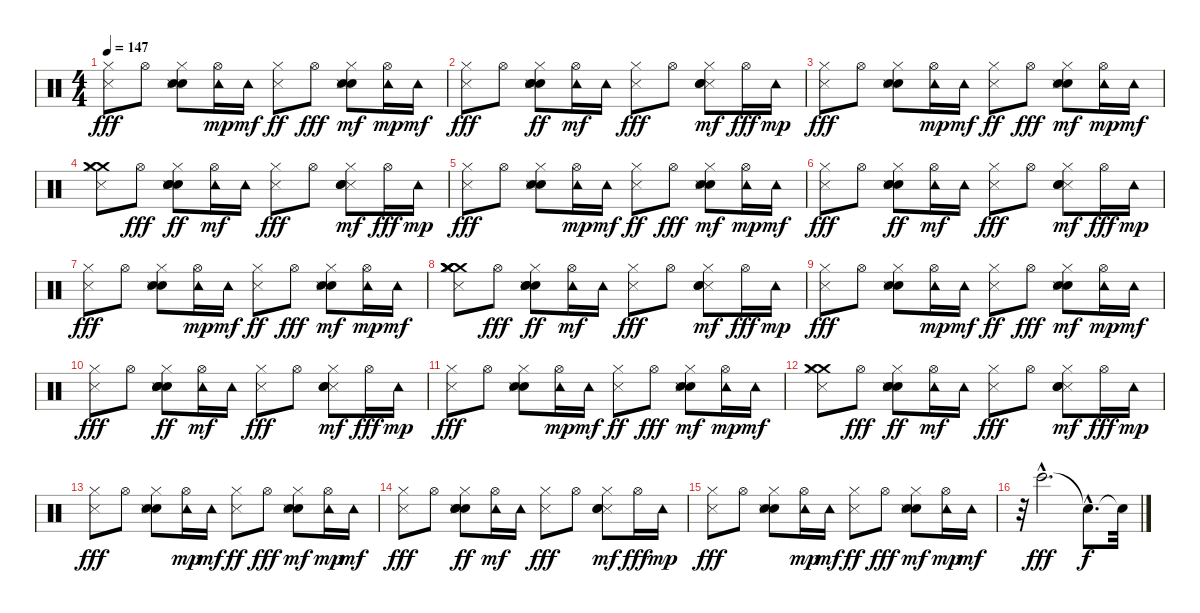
\track "" {instrument percussion}
\staff {score}
\articulation defaults
\ts (4 4)
\tempo 147
\clef neutral
\ks c
("Metronome (hit)" "Hi-Hat (closed)").8{dy fff} "Hi-Hat (open)".8 ("Hand Clap (hit)" "Metronome (hit)" "Hi-Hat (closed)" "Snare (hit) 2").8 ("Hi-Hat (open)" "Tambourine (hit)").16{dy mp} "Tambourine (hit)".16{dy mf} ("Metronome (hit)" "Hi-Hat (closed)").8{dy ff} "Hi-Hat (open)".8{dy fff} ("Hand Clap (hit)" "Metronome (hit)" "Hi-Hat (closed)" "Snare (hit) 2").8{dy mf} ("Hi-Hat (open)" "Tambourine (hit)").16{dy mp} "Tambourine (hit)".16{dy mf} |
("Hi-Hat (closed)" "Metronome (hit)").8{dy fff} "Hi-Hat (open)".8 ("Hand Clap (hit)" "Metronome (hit)" "Hi-Hat (closed)" "Snare (hit) 2" "Snare (hit) 2").8{dy ff} ("Hi-Hat (open)" "Tambourine (hit)").16{dy mf} "Tambourine (hit)".16 ("Hi-Hat (closed)" "Metronome (hit)").8{dy fff} "Hi-Hat (open)".8 ("Metronome (hit)" "Hand Clap (hit)" "Hi-Hat (closed)" "Snare (hit) 2").8{dy mf} "Hi-Hat (open)".16{dy fff} "Tambourine (hit)".16{dy mp} |
("Metronome (hit)" "Hi-Hat (closed)").8{dy fff} "Hi-Hat (open)".8 ("Hand Clap (hit)" "Metronome (hit)" "Hi-Hat (closed)" "Snare (hit) 2").8 ("Hi-Hat (open)" "Tambourine (hit)").16{dy mp} "Tambourine (hit)".16{dy mf} ("Metronome (hit)" "Hi-Hat (closed)").8{dy ff} "Hi-Hat (open)".8{dy fff} ("Hand Clap (hit)" "Metronome (hit)" "Hi-Hat (closed)" "Snare (hit) 2").8{dy mf} ("Hi-Hat (open)" "Tambourine (hit)").16{dy mp} "Tambourine (hit)".16{dy mf} |
("Crash medium (hit)" "Hi-Hat (closed)" "Metronome (hit)" "Crash medium (hit)").8 "Hi-Hat (open)".8{dy fff} ("Hand Clap (hit)" "Metronome (hit)" "Hi-Hat (closed)" "Snare (hit) 2" "Snare (hit) 2").8{dy ff} ("Hi-Hat (open)" "Tambourine (hit)").16{dy mf} "Tambourine (hit)".16 ("Hi-Hat (closed)" "Metronome (hit)").8{dy fff} "Hi-Hat (open)".8 ("Metronome (hit)" "Hand Clap (hit)" "Hi-Hat (closed)" "Snare (hit) 2").8{dy mf} "Hi-Hat (open)".16{dy fff} "Tambourine (hit)".16{dy mp} |
("Metronome (hit)" "Hi-Hat (closed)").8{dy fff} "Hi-Hat (open)".8 ("Hand Clap (hit)" "Metronome (hit)" "Hi-Hat (closed)" "Snare (hit) 2").8 ("Hi-Hat (open)" "Tambourine (hit)").16{dy mp} "Tambourine (hit)".16{dy mf} ("Metronome (hit)" "Hi-Hat (closed)").8{dy ff} "Hi-Hat (open)".8{dy fff} ("Hand Clap (hit)" "Metronome (hit)" "Hi-Hat (closed)" "Snare (hit) 2").8{dy mf} ("Hi-Hat (open)" "Tambourine (hit)").16{dy mp} "Tambourine (hit)".16{dy mf} |
("Hi-Hat (closed)" "Metronome (hit)").8{dy fff} "Hi-Hat (open)".8 ("Hand Clap (hit)" "Metronome (hit)" "Hi-Hat (closed)" "Snare (hit) 2" "Snare (hit) 2").8{dy ff} ("Hi-Hat (open)" "Tambourine (hit)").16{dy mf} "Tambourine (hit)".16 ("Hi-Hat (closed)" "Metronome (hit)").8{dy fff} "Hi-Hat (open)".8 ("Metronome (hit)" "Hand Clap (hit)" "Hi-Hat (closed)" "Snare (hit) 2").8{dy mf} "Hi-Hat (open)".16{dy fff} "Tambourine (hit)".16{dy mp} |
("Metronome (hit)" "Hi-Hat (closed)").8{dy fff} "Hi-Hat (open)".8 ("Hand Clap (hit)" "Metronome (hit)" "Hi-Hat (closed)" "Snare (hit) 2").8 ("Hi-Hat (open)" "Tambourine (hit)").16{dy mp} "Tambourine (hit)".16{dy mf} ("Metronome (hit)" "Hi-Hat (closed)").8{dy ff} "Hi-Hat (open)".8{dy fff} ("Hand Clap (hit)" "Metronome (hit)" "Hi-Hat (closed)" "Snare (hit) 2").8{dy mf} ("Hi-Hat (open)" "Tambourine (hit)").16{dy mp} "Tambourine (hit)".16{dy mf} |
("Crash medium (hit)" "Crash medium (hit)" "Hi-Hat (closed)" "Metronome (hit)" "Crash medium (hit)" "Crash medium (hit)").8 "Hi-Hat (open)".8{dy fff} ("Hand Clap (hit)" "Metronome (hit)" "Hi-Hat (closed)" "Snare (hit) 2" "Snare (hit) 2").8{dy ff} ("Hi-Hat (open)" "Tambourine (hit)").16{dy mf} "Tambourine (hit)".16 ("Hi-Hat (closed)" "Metronome (hit)").8{dy fff} "Hi-Hat (open)".8 ("Metronome (hit)" "Hand Clap (hit)" "Hi-Hat (closed)" "Snare (hit) 2").8{dy mf} "Hi-Hat (open)".16{dy fff} "Tambourine (hit)".16{dy mp} |
("Metronome (hit)" "Hi-Hat (closed)").8{dy fff} "Hi-Hat (open)".8 ("Hand Clap (hit)" "Metronome (hit)" "Hi-Hat (closed)" "Snare (hit) 2").8 ("Hi-Hat (open)" "Tambourine (hit)").16{dy mp} "Tambourine (hit)".16{dy mf} ("Metronome (hit)" "Hi-Hat (closed)").8{dy ff} "Hi-Hat (open)".8{dy fff} ("Hand Clap (hit)" "Metronome (hit)" "Hi-Hat (closed)" "Snare (hit) 2").8{dy mf} ("Hi-Hat (open)" "Tambourine (hit)").16{dy mp} "Tambourine (hit)".16{dy mf} |
("Hi-Hat (closed)" "Metronome (hit)").8{dy fff} "Hi-Hat (open)".8 ("Hand Clap (hit)" "Metronome (hit)" "Hi-Hat (closed)" "Snare (hit) 2" "Snare (hit) 2").8{dy ff} ("Hi-Hat (open)" "Tambourine (hit)").16{dy mf} "Tambourine (hit)".16 ("Hi-Hat (closed)" "Metronome (hit)").8{dy fff} "Hi-Hat (open)".8 ("Metronome (hit)" "Hand Clap (hit)" "Hi-Hat (closed)" "Snare (hit) 2").8{dy mf} "Hi-Hat (open)".16{dy fff} "Tambourine (hit)".16{dy mp} |
("Metronome (hit)" "Hi-Hat (closed)").8{dy fff} "Hi-Hat (open)".8 ("Hand Clap (hit)" "Metronome (hit)" "Hi-Hat (closed)" "Snare (hit) 2").8 ("Hi-Hat (open)" "Tambourine (hit)").16{dy mp} "Tambourine (hit)".16{dy mf} ("Metronome (hit)" "Hi-Hat (closed)").8{dy ff} "Hi-Hat (open)".8{dy fff} ("Hand Clap (hit)" "Metronome (hit)" "Hi-Hat (closed)" "Snare (hit) 2").8{dy mf} ("Hi-Hat (open)" "Tambourine (hit)").16{dy mp} "Tambourine (hit)".16{dy mf} |
("Crash medium (hit)" "Hi-Hat (closed)" "Metronome (hit)" "Crash medium (hit)").8 "Hi-Hat (open)".8{dy fff} ("Hand Clap (hit)" "Metronome (hit)" "Hi-Hat (closed)" "Snare (hit) 2" "Snare (hit) 2").8{dy ff} ("Hi-Hat (open)" "Tambourine (hit)").16{dy mf} "Tambourine (hit)".16 ("Hi-Hat (closed)" "Metronome (hit)").8{dy fff} "Hi-Hat (open)".8 ("Metronome (hit)" "Hand Clap (hit)" "Hi-Hat (closed)" "Snare (hit) 2").8{dy mf} "Hi-Hat (open)".16{dy fff} "Tambourine (hit)".16{dy mp} |
("Metronome (hit)" "Hi-Hat (closed)").8{dy fff} "Hi-Hat (open)".8 ("Hand Clap (hit)" "Metronome (hit)" "Hi-Hat (closed)" "Snare (hit) 2").8 ("Hi-Hat (open)" "Tambourine (hit)").16{dy mp} "Tambourine (hit)".16{dy mf} ("Metronome (hit)" "Hi-Hat (closed)").8{dy ff} "Hi-Hat (open)".8{dy fff} ("Hand Clap (hit)" "Metronome (hit)" "Hi-Hat (closed)" "Snare (hit) 2").8{dy mf} ("Hi-Hat (open)" "Tambourine (hit)").16{dy mp} "Tambourine (hit)".16{dy mf} |
("Hi-Hat (closed)" "Metronome (hit)").8{dy fff} "Hi-Hat (open)".8 ("Hand Clap (hit)" "Metronome (hit)" "Hi-Hat (closed)" "Snare (hit) 2" "Snare (hit) 2").8{dy ff} ("Hi-Hat (open)" "Tambourine (hit)").16{dy mf} "Tambourine (hit)".16 ("Hi-Hat (closed)" "Metronome (hit)").8{dy fff} "Hi-Hat (open)".8 ("Metronome (hit)" "Hand Clap (hit)" "Hi-Hat (closed)" "Snare (hit) 2").8{dy mf} "Hi-Hat (open)".16{dy fff} "Tambourine (hit)".16{dy mp} |
("Metronome (hit)" "Hi-Hat (closed)").8{dy fff} "Hi-Hat (open)".8 ("Hand Clap (hit)" "Metronome (hit)" "Hi-Hat (closed)" "Snare (hit) 2").8 ("Hi-Hat (open)" "Tambourine (hit)").16{dy mp} "Tambourine (hit)".16{dy mf} ("Metronome (hit)" "Hi-Hat (closed)").8{dy ff} "Hi-Hat (open)".8{dy fff} ("Hand Clap (hit)" "Metronome (hit)" "Hi-Hat (closed)" "Snare (hit) 2").8{dy mf} ("Hi-Hat (open)" "Tambourine (hit)").16{dy mp} "Tambourine (hit)".16{dy mf} |
r.32 "Bongo High (hit)"{hac}.2{d dy fff} "Snare (hit)"{hac t}.8{d dy f} "Snare (hit)"{t}.32
